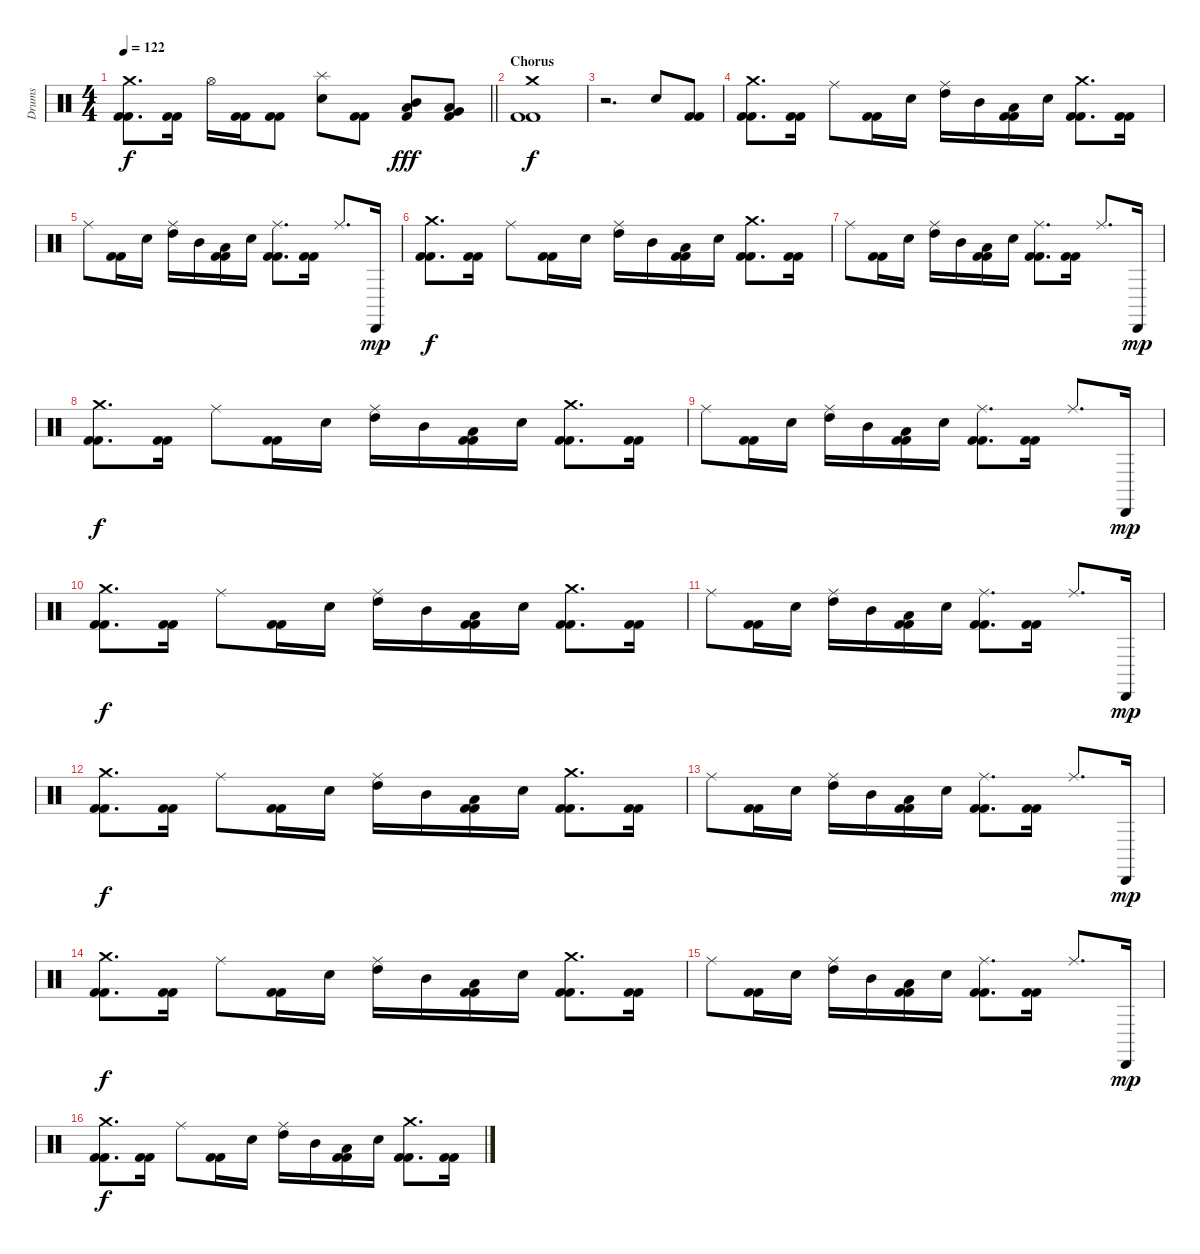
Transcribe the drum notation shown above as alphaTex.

\track ("Drums" "Drums") {instrument percussion}
\staff {score}
\articulation defaults
\ts (4 4)
\tempo 122
\clef neutral
\barLineRight lightlight
\ks c
("Crash medium (hit)" "Kick (hit) 2" "Kick (hit) 2").8{d dy f} ("Kick (hit) 2" "Kick (hit) 2").16 "Hi-Hat (open)".16 ("Kick (hit) 2" "Kick (hit) 2").16 ("Kick (hit) 2" "Kick (hit) 2").8 ("Splash (hit)" "Electric Snare (hit)").8 ("Kick (hit) 2" "Kick (hit) 2").8 ("Mid Tom (hit)" "Low Tom (hit)" "Kick (hit) 2").8{dy fff} ("Low Tom (hit)" "Very Low Tom (hit)" "Kick (hit) 2").8 |
\section ("" "Chorus")
("Crash medium (hit)" "Kick (hit) 2" "Kick (hit) 2").1{dy f} |
r.2{d} "Electric Snare (hit)".8 ("Kick (hit) 2" "Kick (hit) 2").8 |
("Crash medium (hit)" "Kick (hit) 2" "Kick (hit) 2").8{d} ("Kick (hit) 2" "Kick (hit) 2").16 "Ride (middle)".8 ("Kick (hit) 2" "Kick (hit) 2").16 "Electric Snare (hit)".16 ("Ride (middle)" "High Tom (hit)").16 "Mid Tom (hit)".16 ("Low Tom (hit)" "Kick (hit) 2" "Kick (hit) 2").16 "Electric Snare (hit)".16 ("Crash medium (hit)" "Kick (hit) 2" "Kick (hit) 2").8{d} ("Kick (hit) 2" "Kick (hit) 2").16 |
"Ride (middle)".8 ("Kick (hit) 2" "Kick (hit) 2").16 "Electric Snare (hit)".16 ("Ride (middle)" "High Tom (hit)").16 "Mid Tom (hit)".16 ("Low Tom (hit)" "Kick (hit) 2" "Kick (hit) 2").16 "Electric Snare (hit)".16 ("Ride (middle)" "Kick (hit) 2" "Kick (hit) 2").8{d} ("Kick (hit) 2" "Kick (hit) 2").16 "Ride (middle)".8{d} "Cabasa (hit)".16{dy mp} |
("Crash medium (hit)" "Kick (hit) 2" "Kick (hit) 2").8{d dy f} ("Kick (hit) 2" "Kick (hit) 2").16 "Ride (middle)".8 ("Kick (hit) 2" "Kick (hit) 2").16 "Electric Snare (hit)".16 ("Ride (middle)" "High Tom (hit)").16 "Mid Tom (hit)".16 ("Low Tom (hit)" "Kick (hit) 2" "Kick (hit) 2").16 "Electric Snare (hit)".16 ("Crash medium (hit)" "Kick (hit) 2" "Kick (hit) 2").8{d} ("Kick (hit) 2" "Kick (hit) 2").16 |
"Ride (middle)".8 ("Kick (hit) 2" "Kick (hit) 2").16 "Electric Snare (hit)".16 ("Ride (middle)" "High Tom (hit)").16 "Mid Tom (hit)".16 ("Low Tom (hit)" "Kick (hit) 2" "Kick (hit) 2").16 "Electric Snare (hit)".16 ("Ride (middle)" "Kick (hit) 2" "Kick (hit) 2").8{d} ("Kick (hit) 2" "Kick (hit) 2").16 "Ride (middle)".8{d} "Cabasa (hit)".16{dy mp} |
("Crash medium (hit)" "Kick (hit) 2" "Kick (hit) 2").8{d dy f} ("Kick (hit) 2" "Kick (hit) 2").16 "Ride (middle)".8 ("Kick (hit) 2" "Kick (hit) 2").16 "Electric Snare (hit)".16 ("Ride (middle)" "High Tom (hit)").16 "Mid Tom (hit)".16 ("Low Tom (hit)" "Kick (hit) 2" "Kick (hit) 2").16 "Electric Snare (hit)".16 ("Crash medium (hit)" "Kick (hit) 2" "Kick (hit) 2").8{d} ("Kick (hit) 2" "Kick (hit) 2").16 |
"Ride (middle)".8 ("Kick (hit) 2" "Kick (hit) 2").16 "Electric Snare (hit)".16 ("Ride (middle)" "High Tom (hit)").16 "Mid Tom (hit)".16 ("Low Tom (hit)" "Kick (hit) 2" "Kick (hit) 2").16 "Electric Snare (hit)".16 ("Ride (middle)" "Kick (hit) 2" "Kick (hit) 2").8{d} ("Kick (hit) 2" "Kick (hit) 2").16 "Ride (middle)".8{d} "Cabasa (hit)".16{dy mp} |
("Crash medium (hit)" "Kick (hit) 2" "Kick (hit) 2").8{d dy f} ("Kick (hit) 2" "Kick (hit) 2").16 "Ride (middle)".8 ("Kick (hit) 2" "Kick (hit) 2").16 "Electric Snare (hit)".16 ("Ride (middle)" "High Tom (hit)").16 "Mid Tom (hit)".16 ("Low Tom (hit)" "Kick (hit) 2" "Kick (hit) 2").16 "Electric Snare (hit)".16 ("Crash medium (hit)" "Kick (hit) 2" "Kick (hit) 2").8{d} ("Kick (hit) 2" "Kick (hit) 2").16 |
"Ride (middle)".8 ("Kick (hit) 2" "Kick (hit) 2").16 "Electric Snare (hit)".16 ("Ride (middle)" "High Tom (hit)").16 "Mid Tom (hit)".16 ("Low Tom (hit)" "Kick (hit) 2" "Kick (hit) 2").16 "Electric Snare (hit)".16 ("Ride (middle)" "Kick (hit) 2" "Kick (hit) 2").8{d} ("Kick (hit) 2" "Kick (hit) 2").16 "Ride (middle)".8{d} "Cabasa (hit)".16{dy mp} |
("Crash medium (hit)" "Kick (hit) 2" "Kick (hit) 2").8{d dy f} ("Kick (hit) 2" "Kick (hit) 2").16 "Ride (middle)".8 ("Kick (hit) 2" "Kick (hit) 2").16 "Electric Snare (hit)".16 ("Ride (middle)" "High Tom (hit)").16 "Mid Tom (hit)".16 ("Low Tom (hit)" "Kick (hit) 2" "Kick (hit) 2").16 "Electric Snare (hit)".16 ("Crash medium (hit)" "Kick (hit) 2" "Kick (hit) 2").8{d} ("Kick (hit) 2" "Kick (hit) 2").16 |
"Ride (middle)".8 ("Kick (hit) 2" "Kick (hit) 2").16 "Electric Snare (hit)".16 ("Ride (middle)" "High Tom (hit)").16 "Mid Tom (hit)".16 ("Low Tom (hit)" "Kick (hit) 2" "Kick (hit) 2").16 "Electric Snare (hit)".16 ("Ride (middle)" "Kick (hit) 2" "Kick (hit) 2").8{d} ("Kick (hit) 2" "Kick (hit) 2").16 "Ride (middle)".8{d} "Cabasa (hit)".16{dy mp} |
("Crash medium (hit)" "Kick (hit) 2" "Kick (hit) 2").8{d dy f} ("Kick (hit) 2" "Kick (hit) 2").16 "Ride (middle)".8 ("Kick (hit) 2" "Kick (hit) 2").16 "Electric Snare (hit)".16 ("Ride (middle)" "High Tom (hit)").16 "Mid Tom (hit)".16 ("Low Tom (hit)" "Kick (hit) 2" "Kick (hit) 2").16 "Electric Snare (hit)".16 ("Crash medium (hit)" "Kick (hit) 2" "Kick (hit) 2").8{d} ("Kick (hit) 2" "Kick (hit) 2").16 |
"Ride (middle)".8 ("Kick (hit) 2" "Kick (hit) 2").16 "Electric Snare (hit)".16 ("Ride (middle)" "High Tom (hit)").16 "Mid Tom (hit)".16 ("Low Tom (hit)" "Kick (hit) 2" "Kick (hit) 2").16 "Electric Snare (hit)".16 ("Ride (middle)" "Kick (hit) 2" "Kick (hit) 2").8{d} ("Kick (hit) 2" "Kick (hit) 2").16 "Ride (middle)".8{d} "Cabasa (hit)".16{dy mp} |
("Crash medium (hit)" "Kick (hit) 2" "Kick (hit) 2").8{d dy f} ("Kick (hit) 2" "Kick (hit) 2").16 "Ride (middle)".8 ("Kick (hit) 2" "Kick (hit) 2").16 "Electric Snare (hit)".16 ("Ride (middle)" "High Tom (hit)").16 "Mid Tom (hit)".16 ("Low Tom (hit)" "Kick (hit) 2" "Kick (hit) 2").16 "Electric Snare (hit)".16 ("Crash medium (hit)" "Kick (hit) 2" "Kick (hit) 2").8{d} ("Kick (hit) 2" "Kick (hit) 2").16
